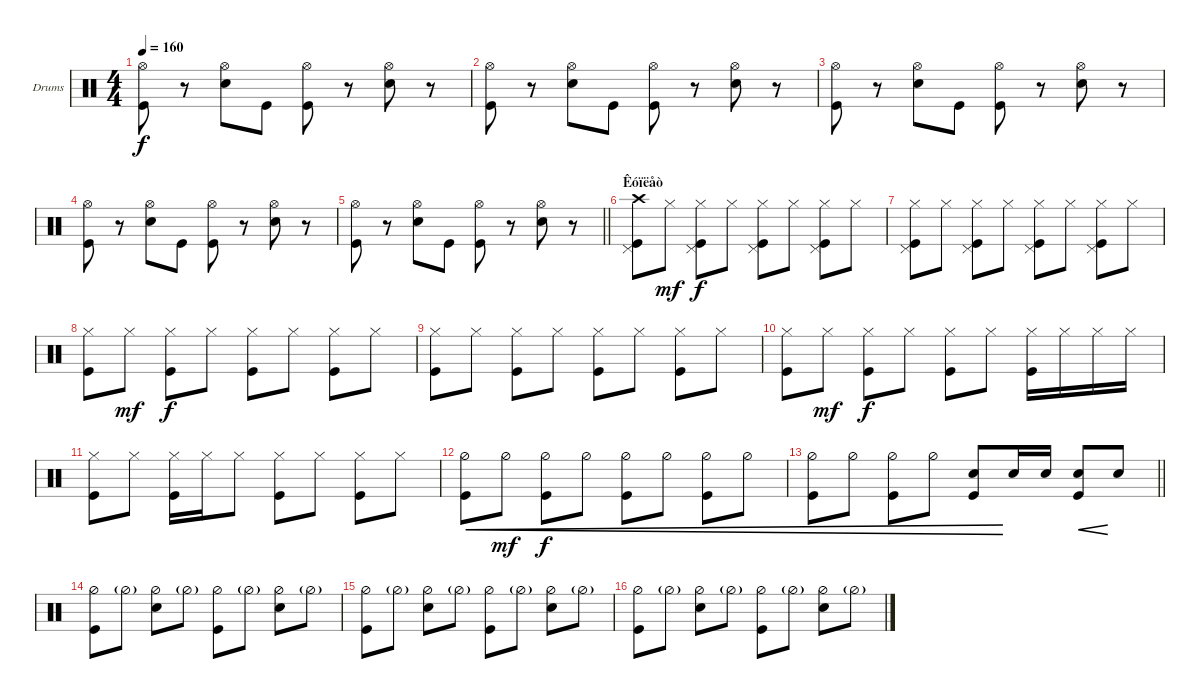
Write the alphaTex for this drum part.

\bracketExtendMode groupsimilarinstruments
\firstSystemTrackNameOrientation horizontal
\otherSystemsTrackNameOrientation horizontal
\track ("Drumkit" "Drums") {instrument percussion}
\staff {score}
\articulation defaults
\ts (4 4)
\tempo 160
\clef neutral
\ks c
("Kick (hit)" "Hi-Hat (open)").8{dy f} r.8 ("Snare (hit) 2" "Hi-Hat (open)").8 "Kick (hit)".8 ("Kick (hit)" "Hi-Hat (open)").8 r.8 ("Snare (hit) 2" "Hi-Hat (open)").8 r.8 |
("Kick (hit)" "Hi-Hat (open)").8 r.8 ("Snare (hit) 2" "Hi-Hat (open)").8 "Kick (hit)".8 ("Kick (hit)" "Hi-Hat (open)").8 r.8 ("Snare (hit) 2" "Hi-Hat (open)").8 r.8 |
("Kick (hit)" "Hi-Hat (open)").8 r.8 ("Snare (hit) 2" "Hi-Hat (open)").8 "Kick (hit)".8 ("Kick (hit)" "Hi-Hat (open)").8 r.8 ("Snare (hit) 2" "Hi-Hat (open)").8 r.8 |
("Kick (hit)" "Hi-Hat (open)").8 r.8 ("Snare (hit) 2" "Hi-Hat (open)").8 "Kick (hit)".8 ("Kick (hit)" "Hi-Hat (open)").8 r.8 ("Snare (hit) 2" "Hi-Hat (open)").8 r.8 |
\barLineRight lightlight
("Kick (hit)" "Hi-Hat (open)").8 r.8 ("Snare (hit) 2" "Hi-Hat (open)").8 "Kick (hit)".8 ("Kick (hit)" "Hi-Hat (open)").8 r.8 ("Snare (hit) 2" "Hi-Hat (open)").8 r.8 |
\section ("" "Êóïëåò")
("Crash high (hit)" "Pedal Hi-Hat (hit)" "Kick (hit)").8 "Hi-Hat (closed)".8{dy mf} ("Pedal Hi-Hat (hit)" "Kick (hit)" "Hi-Hat (closed)").8{dy f} "Hi-Hat (closed)".8 ("Pedal Hi-Hat (hit)" "Kick (hit)" "Hi-Hat (closed)").8 "Hi-Hat (closed)".8 ("Pedal Hi-Hat (hit)" "Kick (hit)" "Hi-Hat (closed)").8 "Hi-Hat (closed)".8 |
("Pedal Hi-Hat (hit)" "Kick (hit)" "Hi-Hat (closed)").8 "Hi-Hat (closed)".8 ("Pedal Hi-Hat (hit)" "Kick (hit)" "Hi-Hat (closed)").8 "Hi-Hat (closed)".8 ("Pedal Hi-Hat (hit)" "Kick (hit)" "Hi-Hat (closed)").8 "Hi-Hat (closed)".8 ("Pedal Hi-Hat (hit)" "Kick (hit)" "Hi-Hat (closed)").8 "Hi-Hat (closed)".8 |
("Kick (hit)" "Hi-Hat (closed)").8 "Hi-Hat (closed)".8{dy mf} ("Kick (hit)" "Hi-Hat (closed)").8{dy f} "Hi-Hat (closed)".8 ("Kick (hit)" "Hi-Hat (closed)").8 "Hi-Hat (closed)".8 ("Kick (hit)" "Hi-Hat (closed)").8 "Hi-Hat (closed)".8 |
("Kick (hit)" "Hi-Hat (closed)").8 "Hi-Hat (closed)".8 ("Kick (hit)" "Hi-Hat (closed)").8 "Hi-Hat (closed)".8 ("Kick (hit)" "Hi-Hat (closed)").8 "Hi-Hat (closed)".8 ("Kick (hit)" "Hi-Hat (closed)").8 "Hi-Hat (closed)".8 |
("Kick (hit)" "Hi-Hat (closed)").8 "Hi-Hat (closed)".8{dy mf} ("Kick (hit)" "Hi-Hat (closed)").8{dy f} "Hi-Hat (closed)".8 ("Kick (hit)" "Hi-Hat (closed)").8 "Hi-Hat (closed)".8 ("Kick (hit)" "Hi-Hat (closed)").16 "Hi-Hat (closed)".16 "Hi-Hat (closed)".16 "Hi-Hat (closed)".16 |
("Kick (hit)" "Hi-Hat (closed)").8 "Hi-Hat (closed)".8 ("Kick (hit)" "Hi-Hat (closed)").16 "Hi-Hat (closed)".16 "Hi-Hat (closed)".8 ("Kick (hit)" "Hi-Hat (closed)").8 "Hi-Hat (closed)".8 ("Kick (hit)" "Hi-Hat (closed)").8 "Hi-Hat (closed)".8 |
("Kick (hit)" "Hi-Hat (half)").8{cre} "Hi-Hat (half)".8{cre dy mf} ("Kick (hit)" "Hi-Hat (half)").8{cre dy f} "Hi-Hat (half)".8{cre} ("Kick (hit)" "Hi-Hat (half)").8{cre} "Hi-Hat (half)".8{cre} ("Kick (hit)" "Hi-Hat (half)").8{cre} "Hi-Hat (half)".8{cre} |
\barLineRight lightlight
("Kick (hit)" "Hi-Hat (half)").8{cre} "Hi-Hat (half)".8{cre} ("Kick (hit)" "Hi-Hat (half)").8{cre} "Hi-Hat (half)".8{cre} ("Kick (hit)" "Snare (hit) 2").8{cre} "Snare (hit) 2".16 "Snare (hit) 2".16 ("Kick (hit)" "Snare (hit) 2").8{cre} "Snare (hit) 2".8 |
\section ("" " ")
("Kick (hit)" "Hi-Hat (half)").8 "Hi-Hat (half)"{g}.8 ("Hi-Hat (half)" "Snare (hit) 2").8 "Hi-Hat (half)"{g}.8 ("Hi-Hat (half)" "Kick (hit)").8 "Hi-Hat (half)"{g}.8 ("Hi-Hat (half)" "Snare (hit) 2").8 "Hi-Hat (half)"{g}.8 |
("Kick (hit)" "Hi-Hat (half)").8 "Hi-Hat (half)"{g}.8 ("Hi-Hat (half)" "Snare (hit) 2").8 "Hi-Hat (half)"{g}.8 ("Hi-Hat (half)" "Kick (hit)").8 "Hi-Hat (half)"{g}.8 ("Hi-Hat (half)" "Snare (hit) 2").8 "Hi-Hat (half)"{g}.8 |
("Kick (hit)" "Hi-Hat (half)").8 "Hi-Hat (half)"{g}.8 ("Hi-Hat (half)" "Snare (hit) 2").8 "Hi-Hat (half)"{g}.8 ("Hi-Hat (half)" "Kick (hit)").8 "Hi-Hat (half)"{g}.8 ("Hi-Hat (half)" "Snare (hit) 2").8 "Hi-Hat (half)"{g}.8
